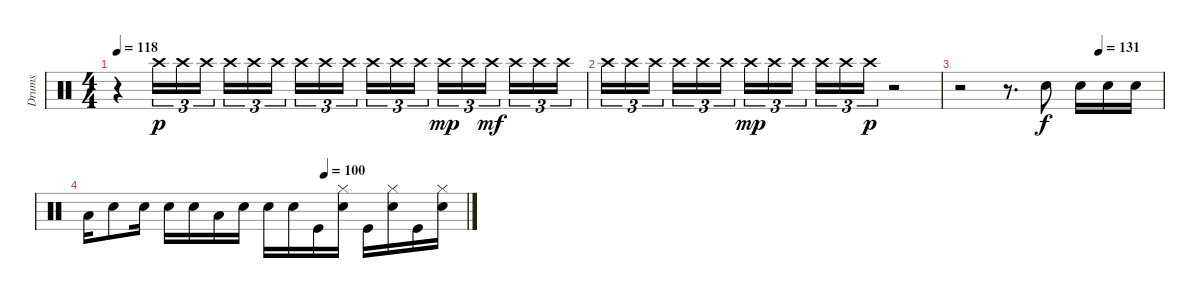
\track ("Drums" "Drums") {instrument percussion}
\staff {score}
\articulation defaults
\ts (4 4)
\tempo 118
\clef neutral
\ks c
r.4{dy f} "Crash high (hit)".16{tu (3 2) dy p} "Crash high (hit)".16{tu (3 2)} "Crash high (hit)".16{tu (3 2)} "Crash high (hit)".16{tu (3 2)} "Crash high (hit)".16{tu (3 2)} "Crash high (hit)".16{tu (3 2)} "Crash high (hit)".16{tu (3 2)} "Crash high (hit)".16{tu (3 2)} "Crash high (hit)".16{tu (3 2)} "Crash high (hit)".16{tu (3 2)} "Crash high (hit)".16{tu (3 2)} "Crash high (hit)".16{tu (3 2)} "Crash high (hit)".16{tu (3 2) dy mp} "Crash high (hit)".16{tu (3 2)} "Crash high (hit)".16{tu (3 2) dy mf} "Crash high (hit)".16{tu (3 2)} "Crash high (hit)".16{tu (3 2)} "Crash high (hit)".16{tu (3 2)} |
"Crash high (hit)".16{tu (3 2)} "Crash high (hit)".16{tu (3 2)} "Crash high (hit)".16{tu (3 2)} "Crash high (hit)".16{tu (3 2)} "Crash high (hit)".16{tu (3 2)} "Crash high (hit)".16{tu (3 2)} "Crash high (hit)".16{tu (3 2) dy mp} "Crash high (hit)".16{tu (3 2)} "Crash high (hit)".16{tu (3 2)} "Crash high (hit)".16{tu (3 2)} "Crash high (hit)".16{tu (3 2)} "Crash high (hit)".16{tu (3 2) dy p} r.2 |
\tempo (131 0.6875)
r.2 r.8{d} "Snare (hit) 2".8{dy f} "Snare (hit) 2".16 "Snare (hit) 2".16 "Snare (hit) 2".16 |
\tempo (100 0.625)
"Low Tom (hit)".16 "Snare (hit) 2".8 "Snare (hit) 2".16 "Snare (hit) 2".16 "Snare (hit) 2".16 "Low Tom (hit)".16 "Snare (hit) 2".16 "Snare (hit) 2".16 "Snare (hit) 2".16 "Kick (hit)".16 ("Hi-Hat (closed)" "Snare (hit) 2").16 "Kick (hit)".16 ("Hi-Hat (closed)" "Snare (hit) 2").16 "Kick (hit)".16 ("Hi-Hat (closed)" "Snare (hit) 2").16
